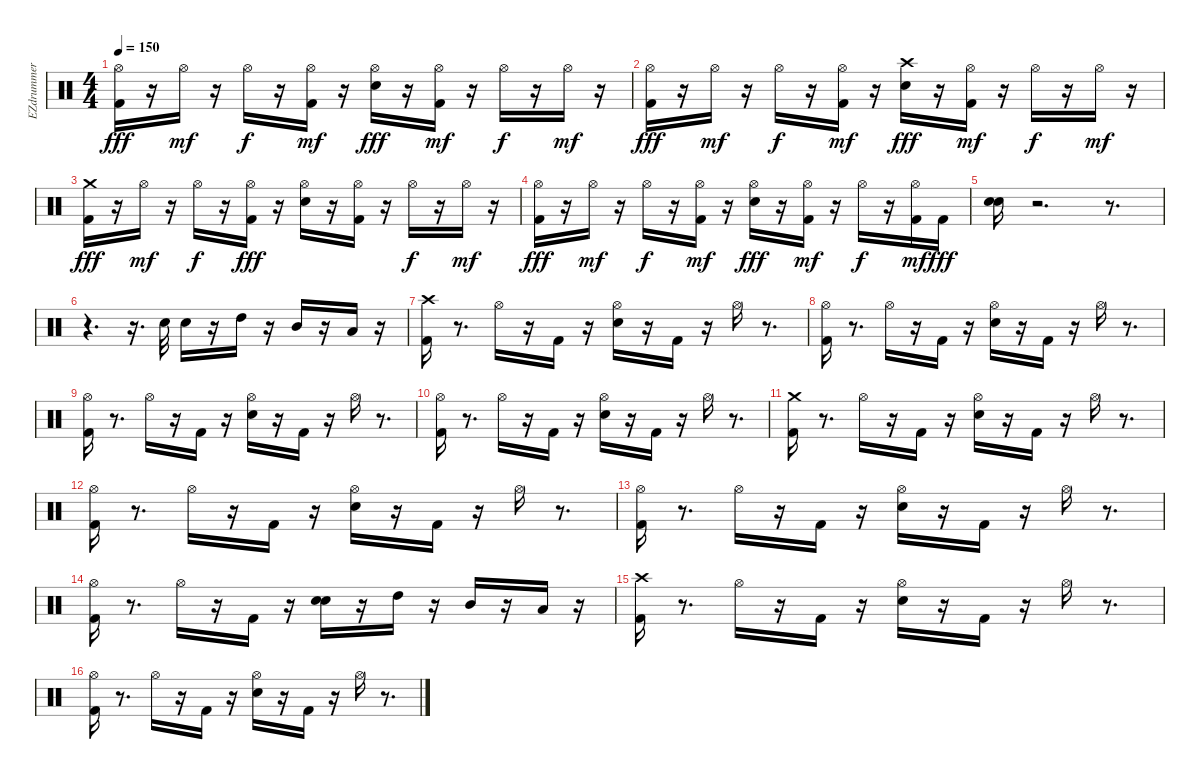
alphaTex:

\track ("EZdrummer 01" "EZdrummer ") {instrument percussion}
\staff {score}
\articulation defaults
\ts (4 4)
\tempo 150
\clef neutral
\ks c
("Kick (hit) 2" "Hi-Hat (open)").16{dy fff} r.16 "Hi-Hat (open)".16{dy mf} r.16 "Hi-Hat (open)".16{dy f} r.16 ("Kick (hit) 2" "Hi-Hat (open)").16{dy mf} r.16 ("Electric Snare (hit)" "Hi-Hat (open)").16{dy fff} r.16 ("Kick (hit) 2" "Hi-Hat (open)").16{dy mf} r.16 "Hi-Hat (open)".16{dy f} r.16 "Hi-Hat (open)".16{dy mf} r.16 |
("Kick (hit) 2" "Hi-Hat (open)").16{dy fff} r.16 "Hi-Hat (open)".16{dy mf} r.16 "Hi-Hat (open)".16{dy f} r.16 ("Kick (hit) 2" "Hi-Hat (open)").16{dy mf} r.16 ("Electric Snare (hit)" "Crash high (hit)").16{dy fff} r.16 ("Kick (hit) 2" "Hi-Hat (open)").16{dy mf} r.16 "Hi-Hat (open)".16{dy f} r.16 "Hi-Hat (open)".16{dy mf} r.16 |
("Crash medium (hit)" "Kick (hit) 2").16{dy fff} r.16 "Hi-Hat (open)".16{dy mf} r.16 "Hi-Hat (open)".16{dy f} r.16 ("Hi-Hat (open)" "Kick (hit) 2").16{dy fff} r.16 ("Hi-Hat (open)" "Electric Snare (hit)").16 r.16 ("Hi-Hat (open)" "Kick (hit) 2").16 r.16 "Hi-Hat (open)".16{dy f} r.16 "Hi-Hat (open)".16{dy mf} r.16 |
("Kick (hit) 2" "Hi-Hat (open)").16{dy fff} r.16 "Hi-Hat (open)".16{dy mf} r.16 "Hi-Hat (open)".16{dy f} r.16 ("Kick (hit) 2" "Hi-Hat (open)").16{dy mf} r.16 ("Electric Snare (hit)" "Hi-Hat (open)").16{dy fff} r.16 ("Kick (hit) 2" "Hi-Hat (open)").16{dy mf} r.16 "Hi-Hat (open)".16{dy f} r.16 ("Kick (hit) 2" "Hi-Hat (open)").16{dy mf} "Kick (hit) 2".16{dy fff} |
("Electric Snare (hit)" "Electric Snare (hit)").16 r.2{d} r.8{d} |
r.4{d} r.16{d} "Electric Snare (hit)".32 "Electric Snare (hit)".16 r.16 "High Tom (hit)".16 r.16 "Mid Tom (hit)".16 r.16 "Low Tom (hit)".16 r.16 |
("Kick (hit) 2" "Crash high (hit)").16 r.8{d} "Hi-Hat (open)".16 r.16 "Kick (hit) 2".16 r.16 ("Hi-Hat (open)" "Electric Snare (hit)").16 r.16 "Kick (hit) 2".16 r.16 "Hi-Hat (open)".16 r.8{d} |
("Hi-Hat (open)" "Kick (hit) 2").16 r.8{d} "Hi-Hat (open)".16 r.16 "Kick (hit) 2".16 r.16 ("Hi-Hat (open)" "Electric Snare (hit)").16 r.16 "Kick (hit) 2".16 r.16 "Hi-Hat (open)".16 r.8{d} |
("Hi-Hat (open)" "Kick (hit) 2").16 r.8{d} "Hi-Hat (open)".16 r.16 "Kick (hit) 2".16 r.16 ("Hi-Hat (open)" "Electric Snare (hit)").16 r.16 "Kick (hit) 2".16 r.16 "Hi-Hat (open)".16 r.8{d} |
("Hi-Hat (open)" "Kick (hit) 2").16 r.8{d} "Hi-Hat (open)".16 r.16 "Kick (hit) 2".16 r.16 ("Hi-Hat (open)" "Electric Snare (hit)").16 r.16 "Kick (hit) 2".16 r.16 "Hi-Hat (open)".16 r.8{d} |
("Kick (hit) 2" "Crash medium (hit)").16 r.8{d} "Hi-Hat (open)".16 r.16 "Kick (hit) 2".16 r.16 ("Hi-Hat (open)" "Electric Snare (hit)").16 r.16 "Kick (hit) 2".16 r.16 "Hi-Hat (open)".16 r.8{d} |
("Hi-Hat (open)" "Kick (hit) 2").16 r.8{d} "Hi-Hat (open)".16 r.16 "Kick (hit) 2".16 r.16 ("Hi-Hat (open)" "Electric Snare (hit)").16 r.16 "Kick (hit) 2".16 r.16 "Hi-Hat (open)".16 r.8{d} |
("Hi-Hat (open)" "Kick (hit) 2").16 r.8{d} "Hi-Hat (open)".16 r.16 "Kick (hit) 2".16 r.16 ("Hi-Hat (open)" "Electric Snare (hit)").16 r.16 "Kick (hit) 2".16 r.16 "Hi-Hat (open)".16 r.8{d} |
("Hi-Hat (open)" "Kick (hit) 2").16 r.8{d} "Hi-Hat (open)".16 r.16 "Kick (hit) 2".16 r.16 ("Electric Snare (hit)" "Electric Snare (hit)").16 r.16 "High Tom (hit)".16 r.16 "Mid Tom (hit)".16 r.16 "Low Tom (hit)".16 r.16 |
("Kick (hit) 2" "Crash high (hit)").16 r.8{d} "Hi-Hat (open)".16 r.16 "Kick (hit) 2".16 r.16 ("Hi-Hat (open)" "Electric Snare (hit)").16 r.16 "Kick (hit) 2".16 r.16 "Hi-Hat (open)".16 r.8{d} |
("Hi-Hat (open)" "Kick (hit) 2").16 r.8{d} "Hi-Hat (open)".16 r.16 "Kick (hit) 2".16 r.16 ("Hi-Hat (open)" "Electric Snare (hit)").16 r.16 "Kick (hit) 2".16 r.16 "Hi-Hat (open)".16 r.8{d}
